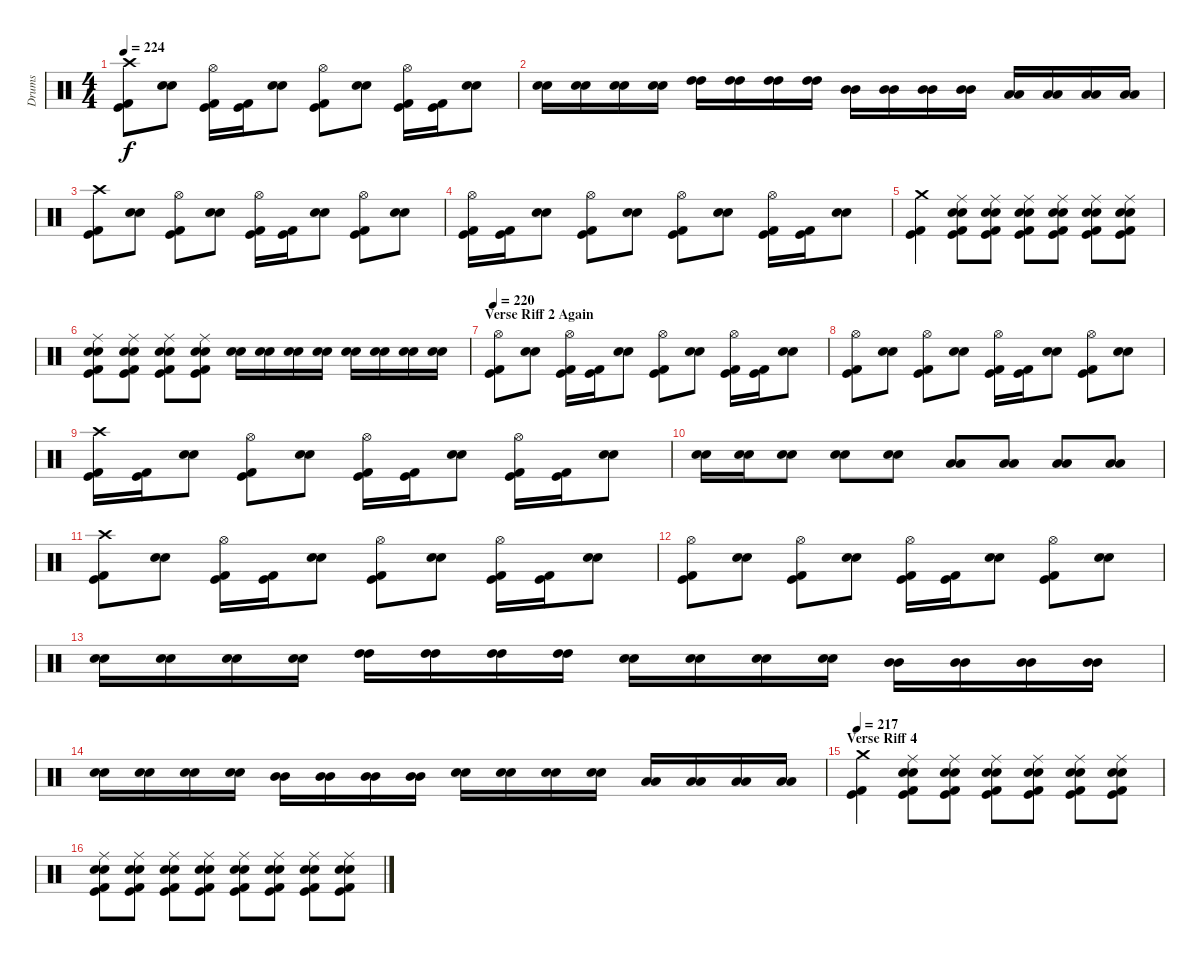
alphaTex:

\track ("Drums" "Drums") {instrument percussion}
\staff {score}
\articulation defaults
\ts (4 4)
\tempo 224
\clef neutral
\ks c
("Crash high (hit)" "Kick (hit) 2" "Kick (hit)").8{dy f} ("Electric Snare (hit)" "Electric Snare (hit)").8 ("Hi-Hat (open)" "Kick (hit) 2" "Kick (hit)").16 ("Kick (hit) 2" "Kick (hit)").16 ("Electric Snare (hit)" "Electric Snare (hit)").8 ("Hi-Hat (open)" "Kick (hit) 2" "Kick (hit)").8 ("Electric Snare (hit)" "Electric Snare (hit)").8 ("Hi-Hat (open)" "Kick (hit) 2" "Kick (hit)").16 ("Kick (hit) 2" "Kick (hit)").16 ("Electric Snare (hit)" "Electric Snare (hit)").8 |
("Electric Snare (hit)" "Electric Snare (hit)").16 ("Electric Snare (hit)" "Electric Snare (hit)").16 ("Electric Snare (hit)" "Electric Snare (hit)").16 ("Electric Snare (hit)" "Electric Snare (hit)").16 ("High Tom (hit)" "High Tom (hit)").16 ("High Tom (hit)" "High Tom (hit)").16 ("High Tom (hit)" "High Tom (hit)").16 ("High Tom (hit)" "High Tom (hit)").16 ("Mid Tom (hit)" "Mid Tom (hit)").16 ("Mid Tom (hit)" "Mid Tom (hit)").16 ("Mid Tom (hit)" "Mid Tom (hit)").16 ("Mid Tom (hit)" "Mid Tom (hit)").16 ("Low Tom (hit)" "Low Tom (hit)").16 ("Low Tom (hit)" "Low Tom (hit)").16 ("Low Tom (hit)" "Low Tom (hit)").16 ("Low Tom (hit)" "Low Tom (hit)").16 |
("Crash high (hit)" "Kick (hit) 2" "Kick (hit)").8 ("Electric Snare (hit)" "Electric Snare (hit)").8 ("Hi-Hat (open)" "Kick (hit) 2" "Kick (hit)").8 ("Electric Snare (hit)" "Electric Snare (hit)").8 ("Hi-Hat (open)" "Kick (hit) 2" "Kick (hit)").16 ("Kick (hit) 2" "Kick (hit)").16 ("Electric Snare (hit)" "Electric Snare (hit)").8 ("Hi-Hat (open)" "Kick (hit) 2" "Kick (hit)").8 ("Electric Snare (hit)" "Electric Snare (hit)").8 |
("Hi-Hat (open)" "Kick (hit) 2" "Kick (hit)").16 ("Kick (hit) 2" "Kick (hit)").16 ("Electric Snare (hit)" "Electric Snare (hit)").8 ("Hi-Hat (open)" "Kick (hit) 2" "Kick (hit)").8 ("Electric Snare (hit)" "Electric Snare (hit)").8 ("Hi-Hat (open)" "Kick (hit) 2" "Kick (hit)").8 ("Electric Snare (hit)" "Electric Snare (hit)").8 ("Hi-Hat (open)" "Kick (hit) 2" "Kick (hit)").16 ("Kick (hit) 2" "Kick (hit)").16 ("Electric Snare (hit)" "Electric Snare (hit)").8 |
("Crash medium (hit)" "Kick (hit) 2" "Kick (hit)").4 ("Ride (middle)" "Electric Snare (hit)" "Electric Snare (hit)" "Kick (hit) 2" "Kick (hit)").8 ("Ride (middle)" "Electric Snare (hit)" "Electric Snare (hit)" "Kick (hit) 2" "Kick (hit)").8 ("Ride (middle)" "Electric Snare (hit)" "Electric Snare (hit)" "Kick (hit) 2" "Kick (hit)").8 ("Ride (middle)" "Electric Snare (hit)" "Electric Snare (hit)" "Kick (hit) 2" "Kick (hit)").8 ("Ride (middle)" "Electric Snare (hit)" "Electric Snare (hit)" "Kick (hit) 2" "Kick (hit)").8 ("Ride (middle)" "Electric Snare (hit)" "Electric Snare (hit)" "Kick (hit) 2" "Kick (hit)").8 |
("Ride (middle)" "Electric Snare (hit)" "Electric Snare (hit)" "Kick (hit) 2" "Kick (hit)").8 ("Ride (middle)" "Electric Snare (hit)" "Electric Snare (hit)" "Kick (hit) 2" "Kick (hit)").8 ("Ride (middle)" "Electric Snare (hit)" "Electric Snare (hit)" "Kick (hit) 2" "Kick (hit)").8 ("Ride (middle)" "Electric Snare (hit)" "Electric Snare (hit)" "Kick (hit) 2" "Kick (hit)").8 ("Electric Snare (hit)" "Electric Snare (hit)").16 ("Electric Snare (hit)" "Electric Snare (hit)").16 ("Electric Snare (hit)" "Electric Snare (hit)").16 ("Electric Snare (hit)" "Electric Snare (hit)").16 ("Electric Snare (hit)" "Electric Snare (hit)").16 ("Electric Snare (hit)" "Electric Snare (hit)").16 ("Electric Snare (hit)" "Electric Snare (hit)").16 ("Electric Snare (hit)" "Electric Snare (hit)").16 |
\section ("" "Verse Riff 2 Again")
\tempo 220
("Hi-Hat (open)" "Kick (hit) 2" "Kick (hit)").8 ("Electric Snare (hit)" "Electric Snare (hit)").8 ("Hi-Hat (open)" "Kick (hit) 2" "Kick (hit)").16 ("Kick (hit) 2" "Kick (hit)").16 ("Electric Snare (hit)" "Electric Snare (hit)").8 ("Hi-Hat (open)" "Kick (hit) 2" "Kick (hit)").8 ("Electric Snare (hit)" "Electric Snare (hit)").8 ("Hi-Hat (open)" "Kick (hit) 2" "Kick (hit)").16 ("Kick (hit) 2" "Kick (hit)").16 ("Electric Snare (hit)" "Electric Snare (hit)").8 |
("Hi-Hat (open)" "Kick (hit) 2" "Kick (hit)").8 ("Electric Snare (hit)" "Electric Snare (hit)").8 ("Hi-Hat (open)" "Kick (hit) 2" "Kick (hit)").8 ("Electric Snare (hit)" "Electric Snare (hit)").8 ("Hi-Hat (open)" "Kick (hit) 2" "Kick (hit)").16 ("Kick (hit) 2" "Kick (hit)").16 ("Electric Snare (hit)" "Electric Snare (hit)").8 ("Hi-Hat (open)" "Kick (hit) 2" "Kick (hit)").8 ("Electric Snare (hit)" "Electric Snare (hit)").8 |
("Crash high (hit)" "Kick (hit) 2" "Kick (hit)").16 ("Kick (hit) 2" "Kick (hit)").16 ("Electric Snare (hit)" "Electric Snare (hit)").8 ("Hi-Hat (open)" "Kick (hit) 2" "Kick (hit)").8 ("Electric Snare (hit)" "Electric Snare (hit)").8 ("Hi-Hat (open)" "Kick (hit) 2" "Kick (hit)").16 ("Kick (hit) 2" "Kick (hit)").16 ("Electric Snare (hit)" "Electric Snare (hit)").8 ("Hi-Hat (open)" "Kick (hit) 2" "Kick (hit)").16 ("Kick (hit) 2" "Kick (hit)").16 ("Electric Snare (hit)" "Electric Snare (hit)").8 |
("Electric Snare (hit)" "Electric Snare (hit)").16 ("Electric Snare (hit)" "Electric Snare (hit)").16 ("Electric Snare (hit)" "Electric Snare (hit)").8 ("Electric Snare (hit)" "Electric Snare (hit)").8 ("Electric Snare (hit)" "Electric Snare (hit)").8 ("Low Tom (hit)" "Low Tom (hit)").8 ("Low Tom (hit)" "Low Tom (hit)").8 ("Low Tom (hit)" "Low Tom (hit)").8 ("Low Tom (hit)" "Low Tom (hit)").8 |
("Crash high (hit)" "Kick (hit) 2" "Kick (hit)").8 ("Electric Snare (hit)" "Electric Snare (hit)").8 ("Hi-Hat (open)" "Kick (hit) 2" "Kick (hit)").16 ("Kick (hit) 2" "Kick (hit)").16 ("Electric Snare (hit)" "Electric Snare (hit)").8 ("Hi-Hat (open)" "Kick (hit) 2" "Kick (hit)").8 ("Electric Snare (hit)" "Electric Snare (hit)").8 ("Hi-Hat (open)" "Kick (hit) 2" "Kick (hit)").16 ("Kick (hit) 2" "Kick (hit)").16 ("Electric Snare (hit)" "Electric Snare (hit)").8 |
("Hi-Hat (open)" "Kick (hit) 2" "Kick (hit)").8 ("Electric Snare (hit)" "Electric Snare (hit)").8 ("Hi-Hat (open)" "Kick (hit) 2" "Kick (hit)").8 ("Electric Snare (hit)" "Electric Snare (hit)").8 ("Hi-Hat (open)" "Kick (hit) 2" "Kick (hit)").16 ("Kick (hit) 2" "Kick (hit)").16 ("Electric Snare (hit)" "Electric Snare (hit)").8 ("Hi-Hat (open)" "Kick (hit) 2" "Kick (hit)").8 ("Electric Snare (hit)" "Electric Snare (hit)").8 |
("Electric Snare (hit)" "Electric Snare (hit)").16 ("Electric Snare (hit)" "Electric Snare (hit)").16 ("Electric Snare (hit)" "Electric Snare (hit)").16 ("Electric Snare (hit)" "Electric Snare (hit)").16 ("High Tom (hit)" "High Tom (hit)").16 ("High Tom (hit)" "High Tom (hit)").16 ("High Tom (hit)" "High Tom (hit)").16 ("High Tom (hit)" "High Tom (hit)").16 ("Electric Snare (hit)" "Electric Snare (hit)").16 ("Electric Snare (hit)" "Electric Snare (hit)").16 ("Electric Snare (hit)" "Electric Snare (hit)").16 ("Electric Snare (hit)" "Electric Snare (hit)").16 ("Mid Tom (hit)" "Mid Tom (hit)").16 ("Mid Tom (hit)" "Mid Tom (hit)").16 ("Mid Tom (hit)" "Mid Tom (hit)").16 ("Mid Tom (hit)" "Mid Tom (hit)").16 |
("Electric Snare (hit)" "Electric Snare (hit)").16 ("Electric Snare (hit)" "Electric Snare (hit)").16 ("Electric Snare (hit)" "Electric Snare (hit)").16 ("Electric Snare (hit)" "Electric Snare (hit)").16 ("Mid Tom (hit)" "Mid Tom (hit)").16 ("Mid Tom (hit)" "Mid Tom (hit)").16 ("Mid Tom (hit)" "Mid Tom (hit)").16 ("Mid Tom (hit)" "Mid Tom (hit)").16 ("Electric Snare (hit)" "Electric Snare (hit)").16 ("Electric Snare (hit)" "Electric Snare (hit)").16 ("Electric Snare (hit)" "Electric Snare (hit)").16 ("Electric Snare (hit)" "Electric Snare (hit)").16 ("Low Tom (hit)" "Low Tom (hit)").16 ("Low Tom (hit)" "Low Tom (hit)").16 ("Low Tom (hit)" "Low Tom (hit)").16 ("Low Tom (hit)" "Low Tom (hit)").16 |
\section ("" "Verse Riff 4")
\tempo 217
("Crash medium (hit)" "Kick (hit) 2" "Kick (hit)").4 ("Ride (middle)" "Electric Snare (hit)" "Electric Snare (hit)" "Kick (hit) 2" "Kick (hit)").8 ("Ride (middle)" "Electric Snare (hit)" "Electric Snare (hit)" "Kick (hit) 2" "Kick (hit)").8 ("Ride (middle)" "Electric Snare (hit)" "Electric Snare (hit)" "Kick (hit) 2" "Kick (hit)").8 ("Ride (middle)" "Electric Snare (hit)" "Electric Snare (hit)" "Kick (hit) 2" "Kick (hit)").8 ("Ride (middle)" "Electric Snare (hit)" "Electric Snare (hit)" "Kick (hit) 2" "Kick (hit)").8 ("Ride (middle)" "Electric Snare (hit)" "Electric Snare (hit)" "Kick (hit) 2" "Kick (hit)").8 |
("Ride (middle)" "Electric Snare (hit)" "Electric Snare (hit)" "Kick (hit) 2" "Kick (hit)").8 ("Ride (middle)" "Electric Snare (hit)" "Electric Snare (hit)" "Kick (hit) 2" "Kick (hit)").8 ("Ride (middle)" "Electric Snare (hit)" "Electric Snare (hit)" "Kick (hit) 2" "Kick (hit)").8 ("Ride (middle)" "Electric Snare (hit)" "Electric Snare (hit)" "Kick (hit) 2" "Kick (hit)").8 ("Ride (middle)" "Electric Snare (hit)" "Electric Snare (hit)" "Kick (hit) 2" "Kick (hit)").8 ("Ride (middle)" "Electric Snare (hit)" "Electric Snare (hit)" "Kick (hit) 2" "Kick (hit)").8 ("Ride (middle)" "Electric Snare (hit)" "Electric Snare (hit)" "Kick (hit) 2" "Kick (hit)").8 ("Ride (middle)" "Electric Snare (hit)" "Electric Snare (hit)" "Kick (hit) 2" "Kick (hit)").8
